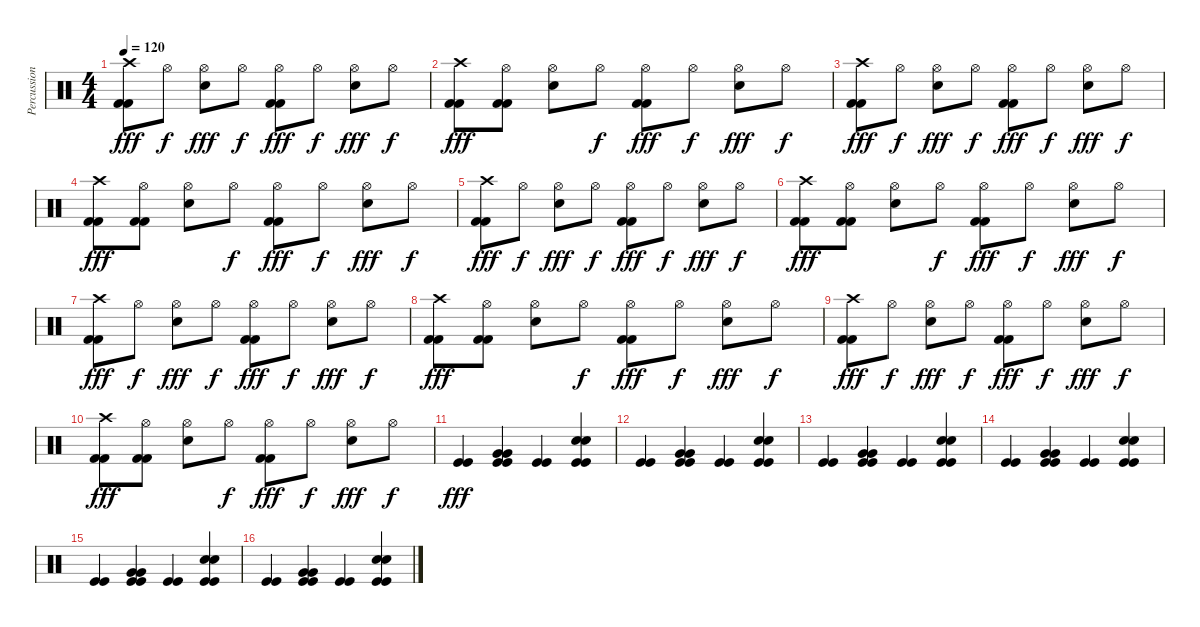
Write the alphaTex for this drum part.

\track ("Percussion" "Percussion") {instrument percussion}
\staff {score}
\articulation defaults
\ts (4 4)
\tempo 120
\clef neutral
\ks c
("Crash high (hit)" "Kick (hit) 2" "Kick (hit) 2").8{dy fff} "Hi-Hat (open)".8{dy f} ("Hi-Hat (open)" "Snare (hit) 2").8{dy fff} "Hi-Hat (open)".8{dy f} ("Hi-Hat (open)" "Kick (hit) 2" "Kick (hit) 2").8{dy fff} "Hi-Hat (open)".8{dy f} ("Hi-Hat (open)" "Snare (hit) 2").8{dy fff} "Hi-Hat (open)".8{dy f} |
("Crash high (hit)" "Kick (hit) 2" "Kick (hit) 2").8{dy fff} ("Hi-Hat (open)" "Kick (hit) 2" "Kick (hit) 2").8 ("Hi-Hat (open)" "Snare (hit) 2").8 "Hi-Hat (open)".8{dy f} ("Hi-Hat (open)" "Kick (hit) 2" "Kick (hit) 2").8{dy fff} "Hi-Hat (open)".8{dy f} ("Hi-Hat (open)" "Snare (hit) 2").8{dy fff} "Hi-Hat (open)".8{dy f} |
("Crash high (hit)" "Kick (hit) 2" "Kick (hit) 2").8{dy fff} "Hi-Hat (open)".8{dy f} ("Hi-Hat (open)" "Snare (hit) 2").8{dy fff} "Hi-Hat (open)".8{dy f} ("Hi-Hat (open)" "Kick (hit) 2" "Kick (hit) 2").8{dy fff} "Hi-Hat (open)".8{dy f} ("Hi-Hat (open)" "Snare (hit) 2").8{dy fff} "Hi-Hat (open)".8{dy f} |
("Crash high (hit)" "Kick (hit) 2" "Kick (hit) 2").8{dy fff} ("Hi-Hat (open)" "Kick (hit) 2" "Kick (hit) 2").8 ("Hi-Hat (open)" "Snare (hit) 2").8 "Hi-Hat (open)".8{dy f} ("Hi-Hat (open)" "Kick (hit) 2" "Kick (hit) 2").8{dy fff} "Hi-Hat (open)".8{dy f} ("Hi-Hat (open)" "Snare (hit) 2").8{dy fff} "Hi-Hat (open)".8{dy f} |
("Crash high (hit)" "Kick (hit) 2" "Kick (hit) 2").8{dy fff} "Hi-Hat (open)".8{dy f} ("Hi-Hat (open)" "Snare (hit) 2").8{dy fff} "Hi-Hat (open)".8{dy f} ("Hi-Hat (open)" "Kick (hit) 2" "Kick (hit) 2").8{dy fff} "Hi-Hat (open)".8{dy f} ("Hi-Hat (open)" "Snare (hit) 2").8{dy fff} "Hi-Hat (open)".8{dy f} |
("Crash high (hit)" "Kick (hit) 2" "Kick (hit) 2").8{dy fff} ("Hi-Hat (open)" "Kick (hit) 2" "Kick (hit) 2").8 ("Hi-Hat (open)" "Snare (hit) 2").8 "Hi-Hat (open)".8{dy f} ("Hi-Hat (open)" "Kick (hit) 2" "Kick (hit) 2").8{dy fff} "Hi-Hat (open)".8{dy f} ("Hi-Hat (open)" "Snare (hit) 2").8{dy fff} "Hi-Hat (open)".8{dy f} |
("Crash high (hit)" "Kick (hit) 2" "Kick (hit) 2").8{dy fff} "Hi-Hat (open)".8{dy f} ("Hi-Hat (open)" "Snare (hit) 2").8{dy fff} "Hi-Hat (open)".8{dy f} ("Hi-Hat (open)" "Kick (hit) 2" "Kick (hit) 2").8{dy fff} "Hi-Hat (open)".8{dy f} ("Hi-Hat (open)" "Snare (hit) 2").8{dy fff} "Hi-Hat (open)".8{dy f} |
("Crash high (hit)" "Kick (hit) 2" "Kick (hit) 2").8{dy fff} ("Hi-Hat (open)" "Kick (hit) 2" "Kick (hit) 2").8 ("Hi-Hat (open)" "Snare (hit) 2").8 "Hi-Hat (open)".8{dy f} ("Hi-Hat (open)" "Kick (hit) 2" "Kick (hit) 2").8{dy fff} "Hi-Hat (open)".8{dy f} ("Hi-Hat (open)" "Snare (hit) 2").8{dy fff} "Hi-Hat (open)".8{dy f} |
("Crash high (hit)" "Kick (hit) 2" "Kick (hit) 2").8{dy fff} "Hi-Hat (open)".8{dy f} ("Hi-Hat (open)" "Snare (hit) 2").8{dy fff} "Hi-Hat (open)".8{dy f} ("Hi-Hat (open)" "Kick (hit) 2" "Kick (hit) 2").8{dy fff} "Hi-Hat (open)".8{dy f} ("Hi-Hat (open)" "Snare (hit) 2").8{dy fff} "Hi-Hat (open)".8{dy f} |
("Crash high (hit)" "Kick (hit) 2" "Kick (hit) 2").8{dy fff} ("Hi-Hat (open)" "Kick (hit) 2" "Kick (hit) 2").8 ("Hi-Hat (open)" "Snare (hit) 2").8 "Hi-Hat (open)".8{dy f} ("Hi-Hat (open)" "Kick (hit) 2" "Kick (hit) 2").8{dy fff} "Hi-Hat (open)".8{dy f} ("Hi-Hat (open)" "Snare (hit) 2").8{dy fff} "Hi-Hat (open)".8{dy f} |
("Kick (hit)" "Kick (hit)").4{dy fff} ("Kick (hit)" "Kick (hit)" "Very Low Tom (hit)" "Very Low Tom (hit)").4 ("Kick (hit)" "Kick (hit)").4 ("Kick (hit)" "Kick (hit)" "Snare (hit) 2" "Snare (hit) 2").4 |
("Kick (hit)" "Kick (hit)").4 ("Kick (hit)" "Kick (hit)" "Very Low Tom (hit)" "Very Low Tom (hit)").4 ("Kick (hit)" "Kick (hit)").4 ("Kick (hit)" "Kick (hit)" "Snare (hit) 2" "Snare (hit) 2").4 |
("Kick (hit)" "Kick (hit)").4 ("Kick (hit)" "Kick (hit)" "Very Low Tom (hit)" "Very Low Tom (hit)").4 ("Kick (hit)" "Kick (hit)").4 ("Kick (hit)" "Kick (hit)" "Snare (hit) 2" "Snare (hit) 2").4 |
("Kick (hit)" "Kick (hit)").4 ("Kick (hit)" "Kick (hit)" "Very Low Tom (hit)" "Very Low Tom (hit)").4 ("Kick (hit)" "Kick (hit)").4 ("Kick (hit)" "Kick (hit)" "Snare (hit) 2" "Snare (hit) 2").4 |
("Kick (hit)" "Kick (hit)").4 ("Kick (hit)" "Kick (hit)" "Very Low Tom (hit)" "Very Low Tom (hit)").4 ("Kick (hit)" "Kick (hit)").4 ("Kick (hit)" "Kick (hit)" "Snare (hit) 2" "Snare (hit) 2").4 |
("Kick (hit)" "Kick (hit)").4 ("Kick (hit)" "Kick (hit)" "Very Low Tom (hit)" "Very Low Tom (hit)").4 ("Kick (hit)" "Kick (hit)").4 ("Kick (hit)" "Kick (hit)" "Snare (hit) 2" "Snare (hit) 2").4
